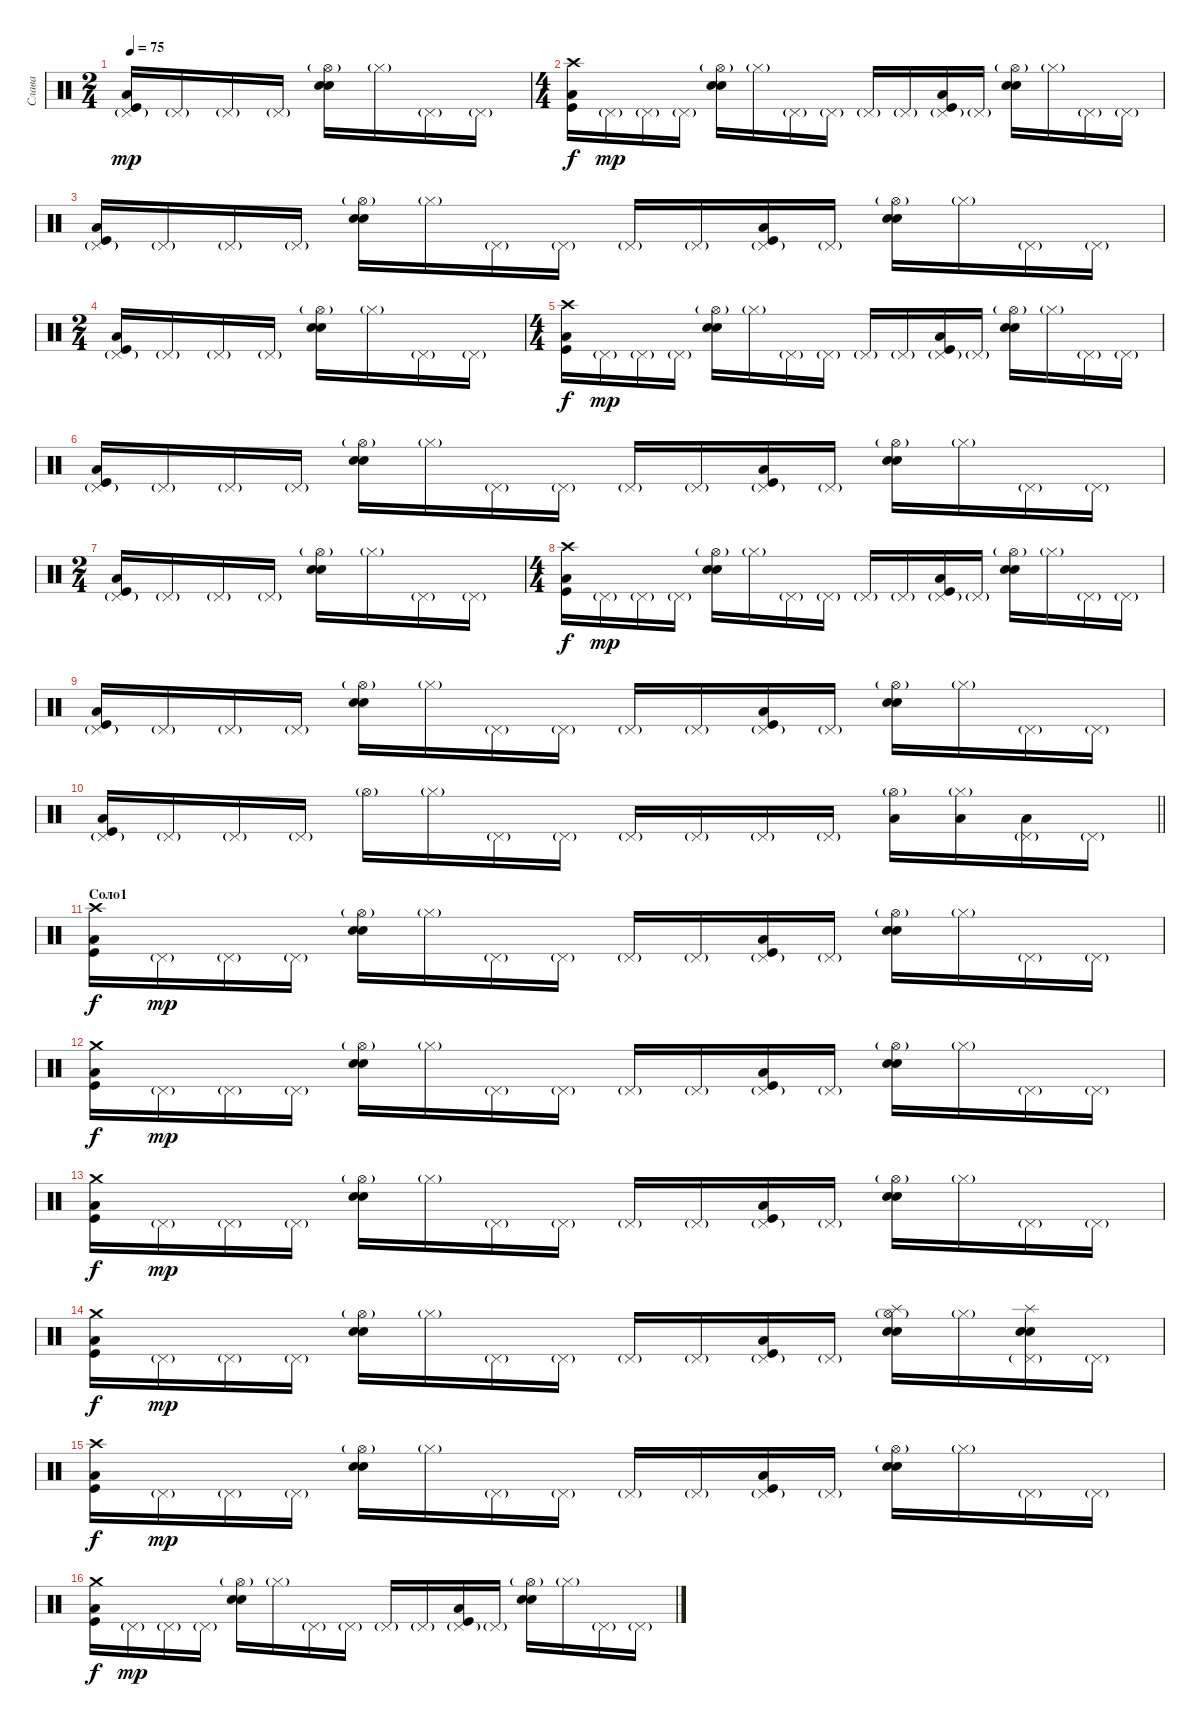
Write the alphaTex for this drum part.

\track ("Слава" "Слава") {instrument percussion}
\staff {score}
\articulation defaults
\ts (2 4)
\tempo 75
\clef neutral
\ks c
("Pedal Hi-Hat (hit)"{g} "Low Tom (hit)" "Kick (hit)").16{dy mp} "Pedal Hi-Hat (hit)"{g}.16 "Pedal Hi-Hat (hit)"{g}.16 "Pedal Hi-Hat (hit)"{g}.16 ("Hi-Hat (open)"{g} "Electric Snare (hit)" "Snare (hit) 2").16 "Hi-Hat (closed)"{g}.16 "Pedal Hi-Hat (hit)"{g}.16 "Pedal Hi-Hat (hit)"{g}.16 |
\ts (4 4)
("Crash high (hit)" "Low Tom (hit)" "Kick (hit)").16{dy f} "Pedal Hi-Hat (hit)"{g}.16{dy mp} "Pedal Hi-Hat (hit)"{g}.16 "Pedal Hi-Hat (hit)"{g}.16 ("Hi-Hat (open)"{g} "Electric Snare (hit)" "Snare (hit) 2").16 "Hi-Hat (closed)"{g}.16 "Pedal Hi-Hat (hit)"{g}.16 "Pedal Hi-Hat (hit)"{g}.16 "Pedal Hi-Hat (hit)"{g}.16 "Pedal Hi-Hat (hit)"{g}.16 ("Pedal Hi-Hat (hit)"{g} "Low Tom (hit)" "Kick (hit)").16 "Pedal Hi-Hat (hit)"{g}.16 ("Hi-Hat (open)"{g} "Electric Snare (hit)" "Snare (hit) 2").16 "Hi-Hat (closed)"{g}.16 "Pedal Hi-Hat (hit)"{g}.16 "Pedal Hi-Hat (hit)"{g}.16 |
("Pedal Hi-Hat (hit)"{g} "Low Tom (hit)" "Kick (hit)").16 "Pedal Hi-Hat (hit)"{g}.16 "Pedal Hi-Hat (hit)"{g}.16 "Pedal Hi-Hat (hit)"{g}.16 ("Hi-Hat (open)"{g} "Electric Snare (hit)" "Snare (hit) 2").16 "Hi-Hat (closed)"{g}.16 "Pedal Hi-Hat (hit)"{g}.16 "Pedal Hi-Hat (hit)"{g}.16 "Pedal Hi-Hat (hit)"{g}.16 "Pedal Hi-Hat (hit)"{g}.16 ("Pedal Hi-Hat (hit)"{g} "Low Tom (hit)" "Kick (hit)").16 "Pedal Hi-Hat (hit)"{g}.16 ("Hi-Hat (open)"{g} "Electric Snare (hit)" "Snare (hit) 2").16 "Hi-Hat (closed)"{g}.16 "Pedal Hi-Hat (hit)"{g}.16 "Pedal Hi-Hat (hit)"{g}.16 |
\ts (2 4)
("Pedal Hi-Hat (hit)"{g} "Low Tom (hit)" "Kick (hit)").16 "Pedal Hi-Hat (hit)"{g}.16 "Pedal Hi-Hat (hit)"{g}.16 "Pedal Hi-Hat (hit)"{g}.16 ("Hi-Hat (open)"{g} "Electric Snare (hit)" "Snare (hit) 2").16 "Hi-Hat (closed)"{g}.16 "Pedal Hi-Hat (hit)"{g}.16 "Pedal Hi-Hat (hit)"{g}.16 |
\ts (4 4)
("Crash high (hit)" "Low Tom (hit)" "Kick (hit)").16{dy f} "Pedal Hi-Hat (hit)"{g}.16{dy mp} "Pedal Hi-Hat (hit)"{g}.16 "Pedal Hi-Hat (hit)"{g}.16 ("Hi-Hat (open)"{g} "Electric Snare (hit)" "Snare (hit) 2").16 "Hi-Hat (closed)"{g}.16 "Pedal Hi-Hat (hit)"{g}.16 "Pedal Hi-Hat (hit)"{g}.16 "Pedal Hi-Hat (hit)"{g}.16 "Pedal Hi-Hat (hit)"{g}.16 ("Pedal Hi-Hat (hit)"{g} "Low Tom (hit)" "Kick (hit)").16 "Pedal Hi-Hat (hit)"{g}.16 ("Hi-Hat (open)"{g} "Electric Snare (hit)" "Snare (hit) 2").16 "Hi-Hat (closed)"{g}.16 "Pedal Hi-Hat (hit)"{g}.16 "Pedal Hi-Hat (hit)"{g}.16 |
("Pedal Hi-Hat (hit)"{g} "Low Tom (hit)" "Kick (hit)").16 "Pedal Hi-Hat (hit)"{g}.16 "Pedal Hi-Hat (hit)"{g}.16 "Pedal Hi-Hat (hit)"{g}.16 ("Hi-Hat (open)"{g} "Electric Snare (hit)" "Snare (hit) 2").16 "Hi-Hat (closed)"{g}.16 "Pedal Hi-Hat (hit)"{g}.16 "Pedal Hi-Hat (hit)"{g}.16 "Pedal Hi-Hat (hit)"{g}.16 "Pedal Hi-Hat (hit)"{g}.16 ("Pedal Hi-Hat (hit)"{g} "Low Tom (hit)" "Kick (hit)").16 "Pedal Hi-Hat (hit)"{g}.16 ("Hi-Hat (open)"{g} "Electric Snare (hit)" "Snare (hit) 2").16 "Hi-Hat (closed)"{g}.16 "Pedal Hi-Hat (hit)"{g}.16 "Pedal Hi-Hat (hit)"{g}.16 |
\ts (2 4)
("Pedal Hi-Hat (hit)"{g} "Low Tom (hit)" "Kick (hit)").16 "Pedal Hi-Hat (hit)"{g}.16 "Pedal Hi-Hat (hit)"{g}.16 "Pedal Hi-Hat (hit)"{g}.16 ("Hi-Hat (open)"{g} "Electric Snare (hit)" "Snare (hit) 2").16 "Hi-Hat (closed)"{g}.16 "Pedal Hi-Hat (hit)"{g}.16 "Pedal Hi-Hat (hit)"{g}.16 |
\ts (4 4)
("Crash high (hit)" "Low Tom (hit)" "Kick (hit)").16{dy f} "Pedal Hi-Hat (hit)"{g}.16{dy mp} "Pedal Hi-Hat (hit)"{g}.16 "Pedal Hi-Hat (hit)"{g}.16 ("Hi-Hat (open)"{g} "Electric Snare (hit)" "Snare (hit) 2").16 "Hi-Hat (closed)"{g}.16 "Pedal Hi-Hat (hit)"{g}.16 "Pedal Hi-Hat (hit)"{g}.16 "Pedal Hi-Hat (hit)"{g}.16 "Pedal Hi-Hat (hit)"{g}.16 ("Pedal Hi-Hat (hit)"{g} "Low Tom (hit)" "Kick (hit)").16 "Pedal Hi-Hat (hit)"{g}.16 ("Hi-Hat (open)"{g} "Electric Snare (hit)" "Snare (hit) 2").16 "Hi-Hat (closed)"{g}.16 "Pedal Hi-Hat (hit)"{g}.16 "Pedal Hi-Hat (hit)"{g}.16 |
("Pedal Hi-Hat (hit)"{g} "Low Tom (hit)" "Kick (hit)").16 "Pedal Hi-Hat (hit)"{g}.16 "Pedal Hi-Hat (hit)"{g}.16 "Pedal Hi-Hat (hit)"{g}.16 ("Hi-Hat (open)"{g} "Electric Snare (hit)" "Snare (hit) 2").16 "Hi-Hat (closed)"{g}.16 "Pedal Hi-Hat (hit)"{g}.16 "Pedal Hi-Hat (hit)"{g}.16 "Pedal Hi-Hat (hit)"{g}.16 "Pedal Hi-Hat (hit)"{g}.16 ("Pedal Hi-Hat (hit)"{g} "Low Tom (hit)" "Kick (hit)").16 "Pedal Hi-Hat (hit)"{g}.16 ("Hi-Hat (open)"{g} "Electric Snare (hit)" "Snare (hit) 2").16 "Hi-Hat (closed)"{g}.16 "Pedal Hi-Hat (hit)"{g}.16 "Pedal Hi-Hat (hit)"{g}.16 |
\barLineRight lightlight
("Pedal Hi-Hat (hit)"{g} "Low Tom (hit)" "Kick (hit)").16 "Pedal Hi-Hat (hit)"{g}.16 "Pedal Hi-Hat (hit)"{g}.16 "Pedal Hi-Hat (hit)"{g}.16 "Hi-Hat (open)"{g}.16 "Hi-Hat (closed)"{g}.16 "Pedal Hi-Hat (hit)"{g}.16 "Pedal Hi-Hat (hit)"{g}.16 "Pedal Hi-Hat (hit)"{g}.16 "Pedal Hi-Hat (hit)"{g}.16 "Pedal Hi-Hat (hit)"{g}.16 "Pedal Hi-Hat (hit)"{g}.16 ("Hi-Hat (open)"{g} "Low Tom (hit)").16 ("Hi-Hat (closed)"{g} "Low Tom (hit)").16 ("Pedal Hi-Hat (hit)"{g} "Low Tom (hit)").16 "Pedal Hi-Hat (hit)"{g}.16 |
\section ("" "Соло1")
("Crash high (hit)" "Low Tom (hit)" "Kick (hit)").16{dy f} "Pedal Hi-Hat (hit)"{g}.16{dy mp} "Pedal Hi-Hat (hit)"{g}.16 "Pedal Hi-Hat (hit)"{g}.16 ("Hi-Hat (open)"{g} "Electric Snare (hit)" "Snare (hit) 2").16 "Hi-Hat (closed)"{g}.16 "Pedal Hi-Hat (hit)"{g}.16 "Pedal Hi-Hat (hit)"{g}.16 "Pedal Hi-Hat (hit)"{g}.16 "Pedal Hi-Hat (hit)"{g}.16 ("Pedal Hi-Hat (hit)"{g} "Low Tom (hit)" "Kick (hit)").16 "Pedal Hi-Hat (hit)"{g}.16 ("Hi-Hat (open)"{g} "Electric Snare (hit)" "Snare (hit) 2").16 "Hi-Hat (closed)"{g}.16 "Pedal Hi-Hat (hit)"{g}.16 "Pedal Hi-Hat (hit)"{g}.16 |
("Crash medium (hit)" "Low Tom (hit)" "Kick (hit)").16{dy f} "Pedal Hi-Hat (hit)"{g}.16{dy mp} "Pedal Hi-Hat (hit)"{g}.16 "Pedal Hi-Hat (hit)"{g}.16 ("Hi-Hat (open)"{g} "Electric Snare (hit)" "Snare (hit) 2").16 "Hi-Hat (closed)"{g}.16 "Pedal Hi-Hat (hit)"{g}.16 "Pedal Hi-Hat (hit)"{g}.16 "Pedal Hi-Hat (hit)"{g}.16 "Pedal Hi-Hat (hit)"{g}.16 ("Pedal Hi-Hat (hit)"{g} "Low Tom (hit)" "Kick (hit)").16 "Pedal Hi-Hat (hit)"{g}.16 ("Hi-Hat (open)"{g} "Electric Snare (hit)" "Snare (hit) 2").16 "Hi-Hat (closed)"{g}.16 "Pedal Hi-Hat (hit)"{g}.16 "Pedal Hi-Hat (hit)"{g}.16 |
("Crash medium (hit)" "Low Tom (hit)" "Kick (hit)").16{dy f} "Pedal Hi-Hat (hit)"{g}.16{dy mp} "Pedal Hi-Hat (hit)"{g}.16 "Pedal Hi-Hat (hit)"{g}.16 ("Hi-Hat (open)"{g} "Electric Snare (hit)" "Snare (hit) 2").16 "Hi-Hat (closed)"{g}.16 "Pedal Hi-Hat (hit)"{g}.16 "Pedal Hi-Hat (hit)"{g}.16 "Pedal Hi-Hat (hit)"{g}.16 "Pedal Hi-Hat (hit)"{g}.16 ("Pedal Hi-Hat (hit)"{g} "Low Tom (hit)" "Kick (hit)").16 "Pedal Hi-Hat (hit)"{g}.16 ("Hi-Hat (open)"{g} "Electric Snare (hit)" "Snare (hit) 2").16 "Hi-Hat (closed)"{g}.16 "Pedal Hi-Hat (hit)"{g}.16 "Pedal Hi-Hat (hit)"{g}.16 |
("Crash medium (hit)" "Low Tom (hit)" "Kick (hit)").16{dy f} "Pedal Hi-Hat (hit)"{g}.16{dy mp} "Pedal Hi-Hat (hit)"{g}.16 "Pedal Hi-Hat (hit)"{g}.16 ("Hi-Hat (open)"{g} "Electric Snare (hit)" "Snare (hit) 2").16 "Hi-Hat (closed)"{g}.16 "Pedal Hi-Hat (hit)"{g}.16 "Pedal Hi-Hat (hit)"{g}.16 "Pedal Hi-Hat (hit)"{g}.16 "Pedal Hi-Hat (hit)"{g}.16 ("Pedal Hi-Hat (hit)"{g} "Low Tom (hit)" "Kick (hit)").16 "Pedal Hi-Hat (hit)"{g}.16 ("Hi-Hat (open)"{g} "Splash (hit)" "Electric Snare (hit)" "Snare (hit) 2").16 "Hi-Hat (closed)"{g}.16 ("Pedal Hi-Hat (hit)"{g} "Splash (hit)" "Electric Snare (hit)" "Snare (hit) 2").16 "Pedal Hi-Hat (hit)"{g}.16 |
("Crash high (hit)" "Low Tom (hit)" "Kick (hit)").16{dy f} "Pedal Hi-Hat (hit)"{g}.16{dy mp} "Pedal Hi-Hat (hit)"{g}.16 "Pedal Hi-Hat (hit)"{g}.16 ("Hi-Hat (open)"{g} "Electric Snare (hit)" "Snare (hit) 2").16 "Hi-Hat (closed)"{g}.16 "Pedal Hi-Hat (hit)"{g}.16 "Pedal Hi-Hat (hit)"{g}.16 "Pedal Hi-Hat (hit)"{g}.16 "Pedal Hi-Hat (hit)"{g}.16 ("Pedal Hi-Hat (hit)"{g} "Low Tom (hit)" "Kick (hit)").16 "Pedal Hi-Hat (hit)"{g}.16 ("Hi-Hat (open)"{g} "Electric Snare (hit)" "Snare (hit) 2").16 "Hi-Hat (closed)"{g}.16 "Pedal Hi-Hat (hit)"{g}.16 "Pedal Hi-Hat (hit)"{g}.16 |
("Crash medium (hit)" "Low Tom (hit)" "Kick (hit)").16{dy f} "Pedal Hi-Hat (hit)"{g}.16{dy mp} "Pedal Hi-Hat (hit)"{g}.16 "Pedal Hi-Hat (hit)"{g}.16 ("Hi-Hat (open)"{g} "Electric Snare (hit)" "Snare (hit) 2").16 "Hi-Hat (closed)"{g}.16 "Pedal Hi-Hat (hit)"{g}.16 "Pedal Hi-Hat (hit)"{g}.16 "Pedal Hi-Hat (hit)"{g}.16 "Pedal Hi-Hat (hit)"{g}.16 ("Pedal Hi-Hat (hit)"{g} "Low Tom (hit)" "Kick (hit)").16 "Pedal Hi-Hat (hit)"{g}.16 ("Hi-Hat (open)"{g} "Electric Snare (hit)" "Snare (hit) 2").16 "Hi-Hat (closed)"{g}.16 "Pedal Hi-Hat (hit)"{g}.16 "Pedal Hi-Hat (hit)"{g}.16
